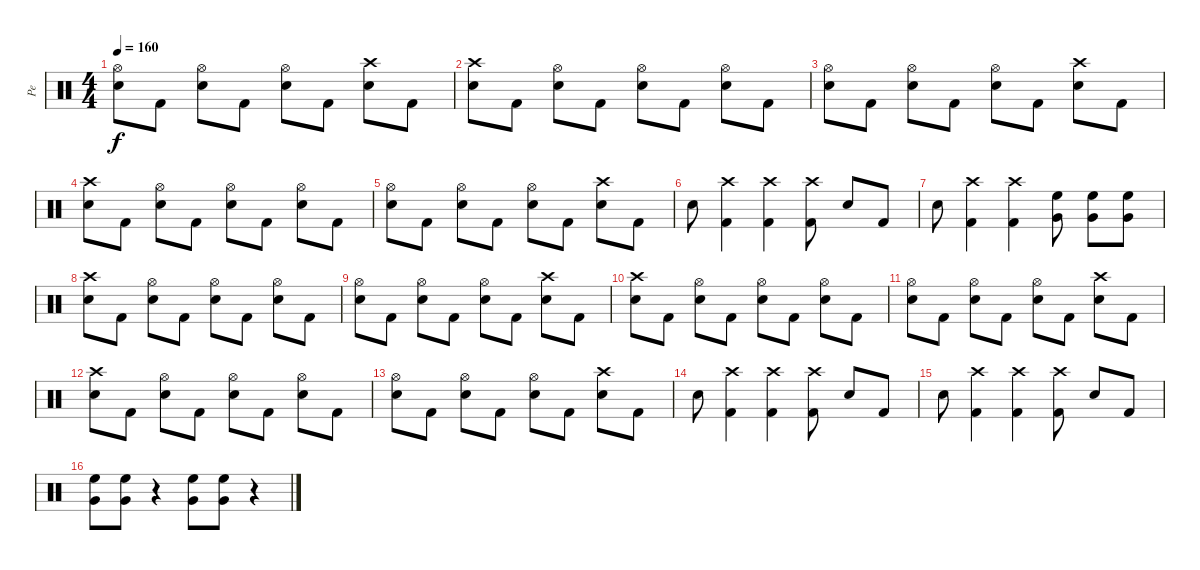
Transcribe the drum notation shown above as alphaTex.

\track ("Pe" "Pe") {instrument percussion}
\staff {score}
\articulation defaults
\ts (4 4)
\tempo 160
\clef neutral
\ks c
("Hi-Hat (open)" "Snare (hit) 2").8{dy f} "Kick (hit) 2".8 ("Hi-Hat (open)" "Snare (hit) 2").8 "Kick (hit) 2".8 ("Hi-Hat (open)" "Snare (hit) 2").8 "Kick (hit) 2".8 ("Crash high (hit)" "Snare (hit) 2").8 "Kick (hit) 2".8 |
("Crash high (hit)" "Snare (hit) 2").8 "Kick (hit) 2".8 ("Hi-Hat (open)" "Snare (hit) 2").8 "Kick (hit) 2".8 ("Hi-Hat (open)" "Snare (hit) 2").8 "Kick (hit) 2".8 ("Hi-Hat (open)" "Snare (hit) 2").8 "Kick (hit) 2".8 |
("Hi-Hat (open)" "Snare (hit) 2").8 "Kick (hit) 2".8 ("Hi-Hat (open)" "Snare (hit) 2").8 "Kick (hit) 2".8 ("Hi-Hat (open)" "Snare (hit) 2").8 "Kick (hit) 2".8 ("Crash high (hit)" "Snare (hit) 2").8 "Kick (hit) 2".8 |
("Crash high (hit)" "Snare (hit) 2").8 "Kick (hit) 2".8 ("Hi-Hat (open)" "Snare (hit) 2").8 "Kick (hit) 2".8 ("Hi-Hat (open)" "Snare (hit) 2").8 "Kick (hit) 2".8 ("Hi-Hat (open)" "Snare (hit) 2").8 "Kick (hit) 2".8 |
("Hi-Hat (open)" "Snare (hit) 2").8 "Kick (hit) 2".8 ("Hi-Hat (open)" "Snare (hit) 2").8 "Kick (hit) 2".8 ("Hi-Hat (open)" "Snare (hit) 2").8 "Kick (hit) 2".8 ("Crash high (hit)" "Snare (hit) 2").8 "Kick (hit) 2".8 |
"Snare (hit) 2".8 ("Crash high (hit)" "Kick (hit) 2").4 ("Crash high (hit)" "Kick (hit) 2").4 ("Kick (hit) 2" "Crash high (hit)").8 "Snare (hit) 2".8 "Kick (hit) 2".8 |
"Snare (hit) 2".8 ("Crash high (hit)" "Kick (hit) 2").4 ("Crash high (hit)" "Kick (hit) 2").4 ("High Floor Tom (hit)" "Very Low Tom (hit)").8 ("High Floor Tom (hit)" "Very Low Tom (hit)").8 ("High Floor Tom (hit)" "Very Low Tom (hit)").8 |
("Crash high (hit)" "Snare (hit) 2").8 "Kick (hit) 2".8 ("Hi-Hat (open)" "Snare (hit) 2").8 "Kick (hit) 2".8 ("Hi-Hat (open)" "Snare (hit) 2").8 "Kick (hit) 2".8 ("Hi-Hat (open)" "Snare (hit) 2").8 "Kick (hit) 2".8 |
("Hi-Hat (open)" "Snare (hit) 2").8 "Kick (hit) 2".8 ("Hi-Hat (open)" "Snare (hit) 2").8 "Kick (hit) 2".8 ("Hi-Hat (open)" "Snare (hit) 2").8 "Kick (hit) 2".8 ("Crash high (hit)" "Snare (hit) 2").8 "Kick (hit) 2".8 |
("Crash high (hit)" "Snare (hit) 2").8 "Kick (hit) 2".8 ("Hi-Hat (open)" "Snare (hit) 2").8 "Kick (hit) 2".8 ("Hi-Hat (open)" "Snare (hit) 2").8 "Kick (hit) 2".8 ("Hi-Hat (open)" "Snare (hit) 2").8 "Kick (hit) 2".8 |
("Hi-Hat (open)" "Snare (hit) 2").8 "Kick (hit) 2".8 ("Hi-Hat (open)" "Snare (hit) 2").8 "Kick (hit) 2".8 ("Hi-Hat (open)" "Snare (hit) 2").8 "Kick (hit) 2".8 ("Crash high (hit)" "Snare (hit) 2").8 "Kick (hit) 2".8 |
("Crash high (hit)" "Snare (hit) 2").8 "Kick (hit) 2".8 ("Hi-Hat (open)" "Snare (hit) 2").8 "Kick (hit) 2".8 ("Hi-Hat (open)" "Snare (hit) 2").8 "Kick (hit) 2".8 ("Hi-Hat (open)" "Snare (hit) 2").8 "Kick (hit) 2".8 |
("Hi-Hat (open)" "Snare (hit) 2").8 "Kick (hit) 2".8 ("Hi-Hat (open)" "Snare (hit) 2").8 "Kick (hit) 2".8 ("Hi-Hat (open)" "Snare (hit) 2").8 "Kick (hit) 2".8 ("Crash high (hit)" "Snare (hit) 2").8 "Kick (hit) 2".8 |
"Snare (hit) 2".8 ("Crash high (hit)" "Kick (hit) 2").4 ("Crash high (hit)" "Kick (hit) 2").4 ("Kick (hit) 2" "Crash high (hit)").8 "Snare (hit) 2".8 "Kick (hit) 2".8 |
"Snare (hit) 2".8 ("Crash high (hit)" "Kick (hit) 2").4 ("Crash high (hit)" "Kick (hit) 2").4 ("Kick (hit) 2" "Crash high (hit)").8 "Snare (hit) 2".8 "Kick (hit) 2".8 |
("Very Low Tom (hit)" "High Floor Tom (hit)").8 ("Very Low Tom (hit)" "High Floor Tom (hit)").8 r.4 ("Very Low Tom (hit)" "High Floor Tom (hit)").8 ("Very Low Tom (hit)" "High Floor Tom (hit)").8 r.4
